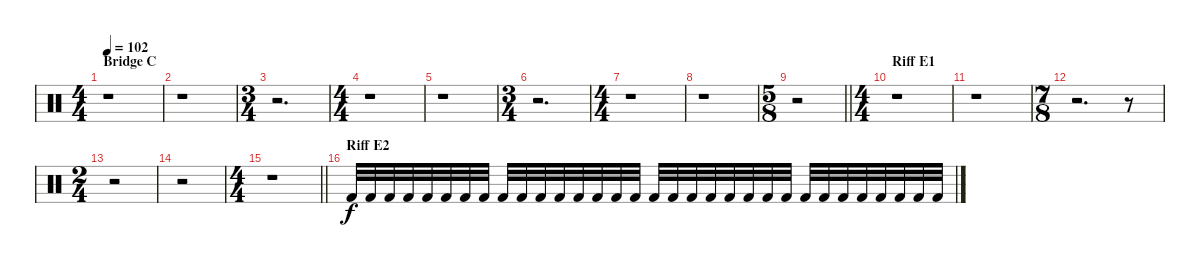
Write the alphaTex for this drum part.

\track "" {instrument percussion}
\staff {score}
\articulation defaults
\ts (4 4)
\section ("" "Bridge C")
\tempo 102
\clef neutral
\ks c
r.1{dy f} |
r.1 |
\ts (3 4)
r.2{d} |
\ts (4 4)
r.1 |
r.1 |
\ts (3 4)
r.2{d} |
\ts (4 4)
r.1 |
r.1 |
\ts (5 8)
\barLineRight lightlight
r.2 |
\ts (4 4)
\section ("" "Riff E1")
r.1 |
r.1 |
\ts (7 8)
r.2{d} r.8 |
\ts (2 4)
r.2 |
r.2 |
\ts (4 4)
\barLineRight lightlight
r.1 |
\section ("" "Riff E2")
"Kick (hit) 2".32 "Kick (hit) 2".32 "Kick (hit) 2".32 "Kick (hit) 2".32 "Kick (hit) 2".32 "Kick (hit) 2".32 "Kick (hit) 2".32 "Kick (hit) 2".32 "Kick (hit) 2".32 "Kick (hit) 2".32 "Kick (hit) 2".32 "Kick (hit) 2".32 "Kick (hit) 2".32 "Kick (hit) 2".32 "Kick (hit) 2".32 "Kick (hit) 2".32 "Kick (hit) 2".32 "Kick (hit) 2".32 "Kick (hit) 2".32 "Kick (hit) 2".32 "Kick (hit) 2".32 "Kick (hit) 2".32 "Kick (hit) 2".32 "Kick (hit) 2".32 "Kick (hit) 2".32 "Kick (hit) 2".32 "Kick (hit) 2".32 "Kick (hit) 2".32 "Kick (hit) 2".32 "Kick (hit) 2".32 "Kick (hit) 2".32 "Kick (hit) 2".32
